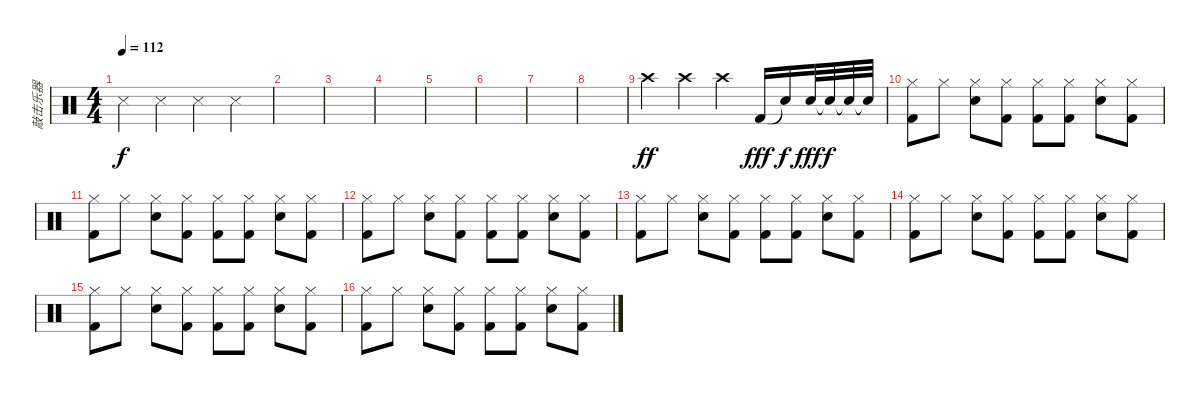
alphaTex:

\track ("敲击乐器" "敲击乐器") {instrument percussion}
\staff {score}
\articulation defaults
\ts (4 4)
\tempo 112
\clef neutral
\ks c "Snare (side stick) 3".4{dy f} "Snare (side stick) 3".4 "Snare (side stick) 3".4 "Snare (side stick) 3".4
|
|
|
|
|
|
|
|
"Crash high (hit)".4{dy ff} "Crash high (hit)".4 "Crash high (hit)".4 "Kick (hit) 2".16{dy fff} "Snare (hit)"{t}.16{dy f} "Snare (hit) 2".32{dy fff} "Snare (hit)"{t}.32{dy f} "Snare (hit)"{t}.32 "Snare (hit)"{t}.32 |
("Hi-Hat (closed)" "Kick (hit) 2").8 "Hi-Hat (closed)".8 ("Hi-Hat (closed)" "Snare (hit) 2").8 ("Hi-Hat (closed)" "Kick (hit) 2").8 ("Hi-Hat (closed)" "Kick (hit) 2").8 ("Hi-Hat (closed)" "Kick (hit) 2").8 ("Hi-Hat (closed)" "Snare (hit) 2").8 ("Hi-Hat (closed)" "Kick (hit) 2").8 |
("Hi-Hat (closed)" "Kick (hit) 2").8 "Hi-Hat (closed)".8 ("Hi-Hat (closed)" "Snare (hit) 2").8 ("Hi-Hat (closed)" "Kick (hit) 2").8 ("Hi-Hat (closed)" "Kick (hit) 2").8 ("Hi-Hat (closed)" "Kick (hit) 2").8 ("Hi-Hat (closed)" "Snare (hit) 2").8 ("Hi-Hat (closed)" "Kick (hit) 2").8 |
("Hi-Hat (closed)" "Kick (hit) 2").8 "Hi-Hat (closed)".8 ("Hi-Hat (closed)" "Snare (hit) 2").8 ("Hi-Hat (closed)" "Kick (hit) 2").8 ("Hi-Hat (closed)" "Kick (hit) 2").8 ("Hi-Hat (closed)" "Kick (hit) 2").8 ("Hi-Hat (closed)" "Snare (hit) 2").8 ("Hi-Hat (closed)" "Kick (hit) 2").8 |
("Hi-Hat (closed)" "Kick (hit) 2").8 "Hi-Hat (closed)".8 ("Hi-Hat (closed)" "Snare (hit) 2").8 ("Hi-Hat (closed)" "Kick (hit) 2").8 ("Hi-Hat (closed)" "Kick (hit) 2").8 ("Hi-Hat (closed)" "Kick (hit) 2").8 ("Hi-Hat (closed)" "Snare (hit) 2").8 ("Hi-Hat (closed)" "Kick (hit) 2").8 |
("Hi-Hat (closed)" "Kick (hit) 2").8 "Hi-Hat (closed)".8 ("Hi-Hat (closed)" "Snare (hit) 2").8 ("Hi-Hat (closed)" "Kick (hit) 2").8 ("Hi-Hat (closed)" "Kick (hit) 2").8 ("Hi-Hat (closed)" "Kick (hit) 2").8 ("Hi-Hat (closed)" "Snare (hit) 2").8 ("Hi-Hat (closed)" "Kick (hit) 2").8 |
("Hi-Hat (closed)" "Kick (hit) 2").8 "Hi-Hat (closed)".8 ("Hi-Hat (closed)" "Snare (hit) 2").8 ("Hi-Hat (closed)" "Kick (hit) 2").8 ("Hi-Hat (closed)" "Kick (hit) 2").8 ("Hi-Hat (closed)" "Kick (hit) 2").8 ("Hi-Hat (closed)" "Snare (hit) 2").8 ("Hi-Hat (closed)" "Kick (hit) 2").8 |
("Hi-Hat (closed)" "Kick (hit) 2").8 "Hi-Hat (closed)".8 ("Hi-Hat (closed)" "Snare (hit) 2").8 ("Hi-Hat (closed)" "Kick (hit) 2").8 ("Hi-Hat (closed)" "Kick (hit) 2").8 ("Hi-Hat (closed)" "Kick (hit) 2").8 ("Hi-Hat (closed)" "Snare (hit) 2").8 ("Hi-Hat (closed)" "Kick (hit) 2").8
